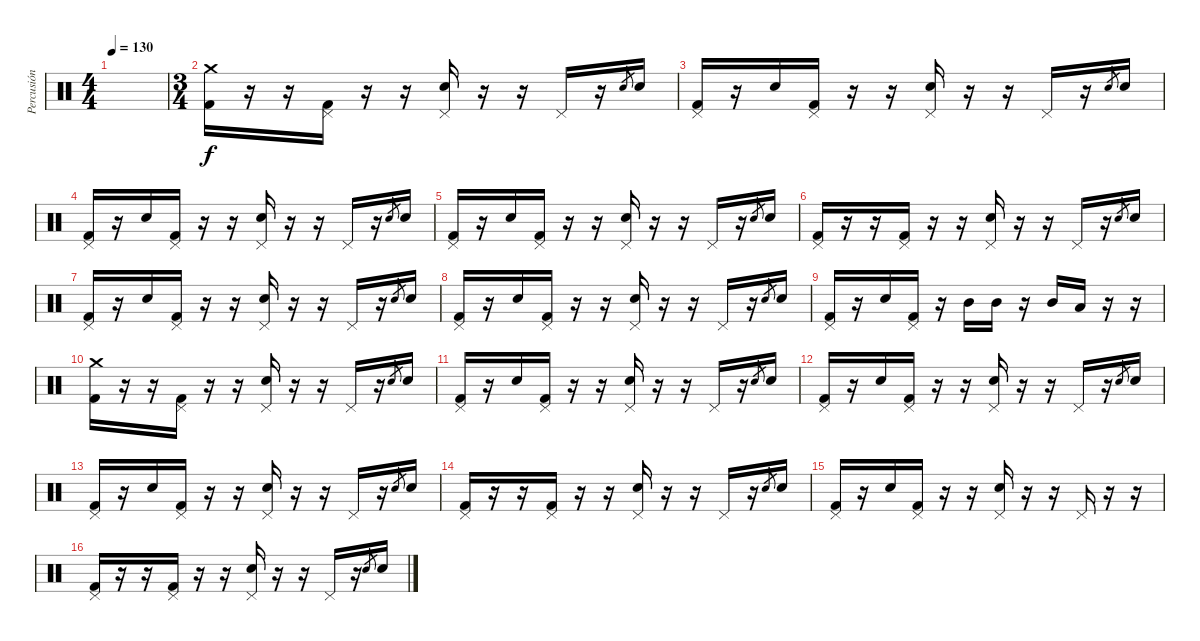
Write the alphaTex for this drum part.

\track ("Percusión" "Percusión") {instrument percussion}
\staff {score}
\articulation defaults
\ts (4 4)
\tempo 130
\clef neutral
\ks c
|
\ts (3 4)
("Crash medium (hit)" "Kick (hit) 2").16 r.16 r.16 ("Pedal Hi-Hat (hit)" "Kick (hit) 2").16 r.16 r.16 ("Pedal Hi-Hat (hit)" "Electric Snare (hit)").16 r.16 r.16 "Pedal Hi-Hat (hit)".16 r.16 "Electric Snare (hit)".8{gr} "Electric Snare (hit)".16 |
("Pedal Hi-Hat (hit)" "Kick (hit) 2").16 r.16 "Electric Snare (hit)".16 ("Pedal Hi-Hat (hit)" "Kick (hit) 2").16 r.16 r.16 ("Pedal Hi-Hat (hit)" "Electric Snare (hit)").16 r.16 r.16 "Pedal Hi-Hat (hit)".16 r.16 "Electric Snare (hit)".8{gr} "Electric Snare (hit)".16 |
("Pedal Hi-Hat (hit)" "Kick (hit) 2").16 r.16 "Electric Snare (hit)".16 ("Pedal Hi-Hat (hit)" "Kick (hit) 2").16 r.16 r.16 ("Pedal Hi-Hat (hit)" "Electric Snare (hit)").16 r.16 r.16 "Pedal Hi-Hat (hit)".16 r.16 "Electric Snare (hit)".8{gr} "Electric Snare (hit)".16 |
("Pedal Hi-Hat (hit)" "Kick (hit) 2").16 r.16 "Electric Snare (hit)".16 ("Pedal Hi-Hat (hit)" "Kick (hit) 2").16 r.16 r.16 ("Pedal Hi-Hat (hit)" "Electric Snare (hit)").16 r.16 r.16 "Pedal Hi-Hat (hit)".16 r.16 "Electric Snare (hit)".8{gr} "Electric Snare (hit)".16 |
("Pedal Hi-Hat (hit)" "Kick (hit) 2").16 r.16 r.16 ("Pedal Hi-Hat (hit)" "Kick (hit) 2").16 r.16 r.16 ("Pedal Hi-Hat (hit)" "Electric Snare (hit)").16 r.16 r.16 "Pedal Hi-Hat (hit)".16 r.16 "Electric Snare (hit)".8{gr} "Electric Snare (hit)".16 |
("Pedal Hi-Hat (hit)" "Kick (hit) 2").16 r.16 "Electric Snare (hit)".16 ("Pedal Hi-Hat (hit)" "Kick (hit) 2").16 r.16 r.16 ("Pedal Hi-Hat (hit)" "Electric Snare (hit)").16 r.16 r.16 "Pedal Hi-Hat (hit)".16 r.16 "Electric Snare (hit)".8{gr} "Electric Snare (hit)".16 |
("Pedal Hi-Hat (hit)" "Kick (hit) 2").16 r.16 "Electric Snare (hit)".16 ("Pedal Hi-Hat (hit)" "Kick (hit) 2").16 r.16 r.16 ("Pedal Hi-Hat (hit)" "Electric Snare (hit)").16 r.16 r.16 "Pedal Hi-Hat (hit)".16 r.16 "Electric Snare (hit)".8{gr} "Electric Snare (hit)".16 |
("Pedal Hi-Hat (hit)" "Kick (hit) 2").16 r.16 "Electric Snare (hit)".16 ("Pedal Hi-Hat (hit)" "Kick (hit) 2").16 r.16 "Mid Tom (hit)".16 "Mid Tom (hit)".16 r.16 "Mid Tom (hit)".16 "Low Tom (hit)".16 r.16 r.16 |
("Crash medium (hit)" "Kick (hit) 2").16 r.16 r.16 ("Pedal Hi-Hat (hit)" "Kick (hit) 2").16 r.16 r.16 ("Pedal Hi-Hat (hit)" "Electric Snare (hit)").16 r.16 r.16 "Pedal Hi-Hat (hit)".16 r.16 "Electric Snare (hit)".8{gr} "Electric Snare (hit)".16 |
("Pedal Hi-Hat (hit)" "Kick (hit) 2").16 r.16 "Electric Snare (hit)".16 ("Pedal Hi-Hat (hit)" "Kick (hit) 2").16 r.16 r.16 ("Pedal Hi-Hat (hit)" "Electric Snare (hit)").16 r.16 r.16 "Pedal Hi-Hat (hit)".16 r.16 "Electric Snare (hit)".8{gr} "Electric Snare (hit)".16 |
("Pedal Hi-Hat (hit)" "Kick (hit) 2").16 r.16 "Electric Snare (hit)".16 ("Pedal Hi-Hat (hit)" "Kick (hit) 2").16 r.16 r.16 ("Pedal Hi-Hat (hit)" "Electric Snare (hit)").16 r.16 r.16 "Pedal Hi-Hat (hit)".16 r.16 "Electric Snare (hit)".8{gr} "Electric Snare (hit)".16 |
("Pedal Hi-Hat (hit)" "Kick (hit) 2").16 r.16 "Electric Snare (hit)".16 ("Pedal Hi-Hat (hit)" "Kick (hit) 2").16 r.16 r.16 ("Pedal Hi-Hat (hit)" "Electric Snare (hit)").16 r.16 r.16 "Pedal Hi-Hat (hit)".16 r.16 "Electric Snare (hit)".8{gr} "Electric Snare (hit)".16 |
("Pedal Hi-Hat (hit)" "Kick (hit) 2").16 r.16 r.16 ("Pedal Hi-Hat (hit)" "Kick (hit) 2").16 r.16 r.16 ("Pedal Hi-Hat (hit)" "Electric Snare (hit)").16 r.16 r.16 "Pedal Hi-Hat (hit)".16 r.16 "Electric Snare (hit)".8{gr} "Electric Snare (hit)".16 |
("Pedal Hi-Hat (hit)" "Kick (hit) 2").16 r.16 "Electric Snare (hit)".16 ("Pedal Hi-Hat (hit)" "Kick (hit) 2").16 r.16 r.16 ("Pedal Hi-Hat (hit)" "Electric Snare (hit)").16 r.16 r.16 "Pedal Hi-Hat (hit)".16 r.16 r.16 |
("Pedal Hi-Hat (hit)" "Kick (hit) 2").16 r.16 r.16 ("Pedal Hi-Hat (hit)" "Kick (hit) 2").16 r.16 r.16 ("Pedal Hi-Hat (hit)" "Electric Snare (hit)").16 r.16 r.16 "Pedal Hi-Hat (hit)".16 r.16 "Electric Snare (hit)".8{gr} "Electric Snare (hit)".16
